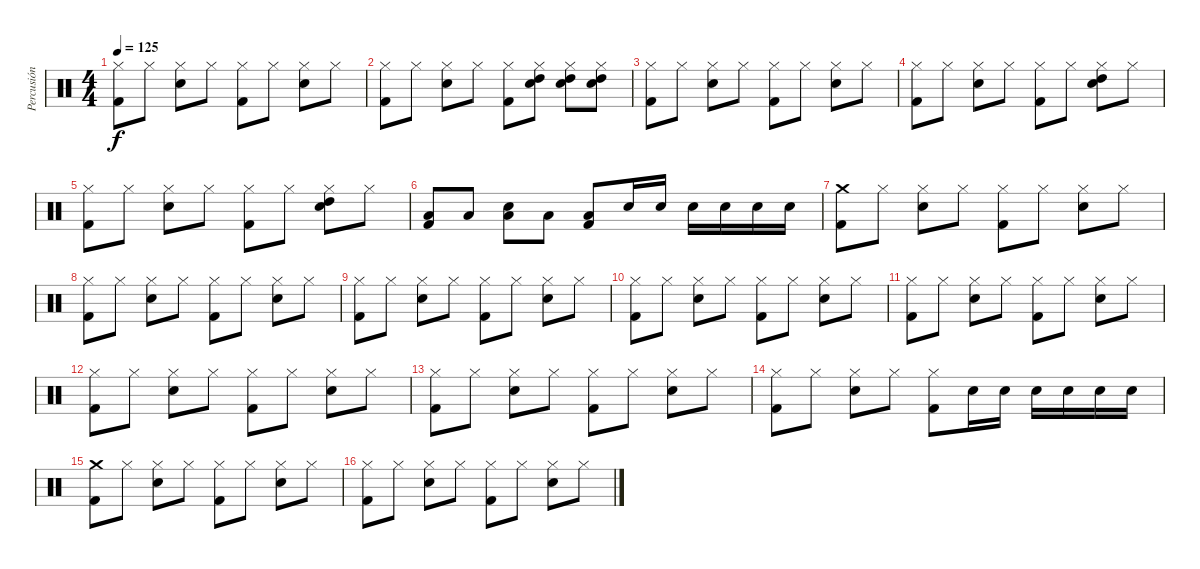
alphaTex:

\track ("Percusión" "Percusión") {instrument percussion}
\staff {score}
\articulation defaults
\ts (4 4)
\tempo 125
\clef neutral
\ks c
("Hi-Hat (closed)" "Kick (hit) 2").8{dy f} "Hi-Hat (closed)".8 ("Hi-Hat (closed)" "Snare (hit) 2").8 "Hi-Hat (closed)".8 ("Hi-Hat (closed)" "Kick (hit) 2").8 "Hi-Hat (closed)".8 ("Hi-Hat (closed)" "Snare (hit) 2").8 "Hi-Hat (closed)".8 |
("Hi-Hat (closed)" "Kick (hit) 2").8 "Hi-Hat (closed)".8 ("Hi-Hat (closed)" "Snare (hit) 2").8 "Hi-Hat (closed)".8 ("Hi-Hat (closed)" "Kick (hit) 2").8 ("Hi-Hat (closed)" "Snare (hit) 2" "High Tom (hit)").8 ("Hi-Hat (closed)" "Snare (hit) 2" "High Tom (hit)").8 ("Hi-Hat (closed)" "Snare (hit) 2" "High Tom (hit)").8 |
("Hi-Hat (closed)" "Kick (hit) 2").8 "Hi-Hat (closed)".8 ("Hi-Hat (closed)" "Snare (hit) 2").8 "Hi-Hat (closed)".8 ("Hi-Hat (closed)" "Kick (hit) 2").8 "Hi-Hat (closed)".8 ("Hi-Hat (closed)" "Snare (hit) 2").8 "Hi-Hat (closed)".8 |
("Hi-Hat (closed)" "Kick (hit) 2").8 "Hi-Hat (closed)".8 ("Hi-Hat (closed)" "Snare (hit) 2").8 "Hi-Hat (closed)".8 ("Hi-Hat (closed)" "Kick (hit) 2").8 "Hi-Hat (closed)".8 ("Hi-Hat (closed)" "Snare (hit) 2" "High Tom (hit)").8 "Hi-Hat (closed)".8 |
("Hi-Hat (closed)" "Kick (hit) 2").8 "Hi-Hat (closed)".8 ("Hi-Hat (closed)" "Snare (hit) 2").8 "Hi-Hat (closed)".8 ("Hi-Hat (closed)" "Kick (hit) 2").8 "Hi-Hat (closed)".8 ("Hi-Hat (closed)" "Snare (hit) 2" "High Tom (hit)").8 "Hi-Hat (closed)".8 |
("Low Tom (hit)" "Kick (hit) 2").8 "Low Tom (hit)".8 ("Low Tom (hit)" "Snare (hit) 2").8 "Low Tom (hit)".8 ("Low Tom (hit)" "Kick (hit) 2").8 "Snare (hit) 2".16 "Snare (hit) 2".16 "Snare (hit) 2".16 "Snare (hit) 2".16 "Snare (hit) 2".16 "Snare (hit) 2".16 |
("Crash medium (hit)" "Kick (hit) 2").8 "Hi-Hat (closed)".8 ("Hi-Hat (closed)" "Snare (hit) 2").8 "Hi-Hat (closed)".8 ("Hi-Hat (closed)" "Kick (hit) 2").8 "Hi-Hat (closed)".8 ("Hi-Hat (closed)" "Snare (hit) 2").8 "Hi-Hat (closed)".8 |
("Hi-Hat (closed)" "Kick (hit) 2").8 "Hi-Hat (closed)".8 ("Hi-Hat (closed)" "Snare (hit) 2").8 "Hi-Hat (closed)".8 ("Hi-Hat (closed)" "Kick (hit) 2").8 "Hi-Hat (closed)".8 ("Hi-Hat (closed)" "Snare (hit) 2").8 "Hi-Hat (closed)".8 |
("Hi-Hat (closed)" "Kick (hit) 2").8 "Hi-Hat (closed)".8 ("Hi-Hat (closed)" "Snare (hit) 2").8 "Hi-Hat (closed)".8 ("Hi-Hat (closed)" "Kick (hit) 2").8 "Hi-Hat (closed)".8 ("Hi-Hat (closed)" "Snare (hit) 2").8 "Hi-Hat (closed)".8 |
("Hi-Hat (closed)" "Kick (hit) 2").8 "Hi-Hat (closed)".8 ("Hi-Hat (closed)" "Snare (hit) 2").8 "Hi-Hat (closed)".8 ("Hi-Hat (closed)" "Kick (hit) 2").8 "Hi-Hat (closed)".8 ("Hi-Hat (closed)" "Snare (hit) 2").8 "Hi-Hat (closed)".8 |
("Hi-Hat (closed)" "Kick (hit) 2").8 "Hi-Hat (closed)".8 ("Hi-Hat (closed)" "Snare (hit) 2").8 "Hi-Hat (closed)".8 ("Hi-Hat (closed)" "Kick (hit) 2").8 "Hi-Hat (closed)".8 ("Hi-Hat (closed)" "Snare (hit) 2").8 "Hi-Hat (closed)".8 |
("Hi-Hat (closed)" "Kick (hit) 2").8 "Hi-Hat (closed)".8 ("Hi-Hat (closed)" "Snare (hit) 2").8 "Hi-Hat (closed)".8 ("Hi-Hat (closed)" "Kick (hit) 2").8 "Hi-Hat (closed)".8 ("Hi-Hat (closed)" "Snare (hit) 2").8 "Hi-Hat (closed)".8 |
("Hi-Hat (closed)" "Kick (hit) 2").8 "Hi-Hat (closed)".8 ("Hi-Hat (closed)" "Snare (hit) 2").8 "Hi-Hat (closed)".8 ("Hi-Hat (closed)" "Kick (hit) 2").8 "Hi-Hat (closed)".8 ("Hi-Hat (closed)" "Snare (hit) 2").8 "Hi-Hat (closed)".8 |
("Hi-Hat (closed)" "Kick (hit) 2").8 "Hi-Hat (closed)".8 ("Hi-Hat (closed)" "Snare (hit) 2").8 "Hi-Hat (closed)".8 ("Hi-Hat (closed)" "Kick (hit) 2").8 "Snare (hit) 2".16 "Snare (hit) 2".16 "Snare (hit) 2".16 "Snare (hit) 2".16 "Snare (hit) 2".16 "Snare (hit) 2".16 |
("Crash medium (hit)" "Kick (hit) 2").8 "Hi-Hat (closed)".8 ("Hi-Hat (closed)" "Snare (hit) 2").8 "Hi-Hat (closed)".8 ("Hi-Hat (closed)" "Kick (hit) 2").8 "Hi-Hat (closed)".8 ("Hi-Hat (closed)" "Snare (hit) 2").8 "Hi-Hat (closed)".8 |
("Hi-Hat (closed)" "Kick (hit) 2").8 "Hi-Hat (closed)".8 ("Hi-Hat (closed)" "Snare (hit) 2").8 "Hi-Hat (closed)".8 ("Hi-Hat (closed)" "Kick (hit) 2").8 "Hi-Hat (closed)".8 ("Hi-Hat (closed)" "Snare (hit) 2").8 "Hi-Hat (closed)".8
